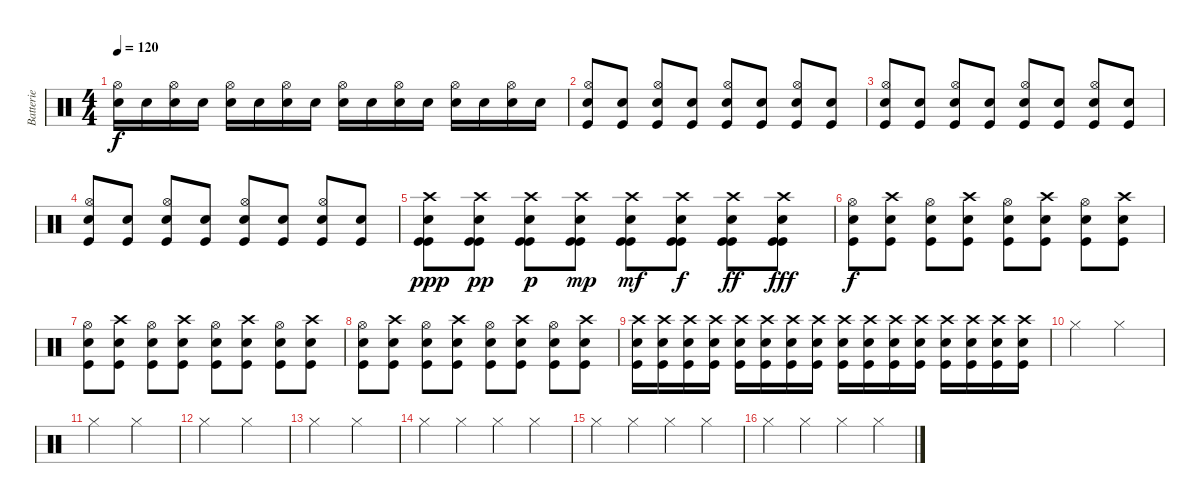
\track ("Batterie" "Batterie") {instrument percussion}
\staff {score}
\articulation defaults
\ts (4 4)
\tempo 120
\clef neutral
\ks c
("Electric Snare (hit)" "Hi-Hat (open)").16{dy f} "Electric Snare (hit)".16 ("Electric Snare (hit)" "Hi-Hat (open)").16 "Electric Snare (hit)".16 ("Electric Snare (hit)" "Hi-Hat (open)").16 "Electric Snare (hit)".16 ("Electric Snare (hit)" "Hi-Hat (open)").16 "Electric Snare (hit)".16 ("Electric Snare (hit)" "Hi-Hat (open)").16 "Electric Snare (hit)".16 ("Electric Snare (hit)" "Hi-Hat (open)").16 "Electric Snare (hit)".16 ("Electric Snare (hit)" "Hi-Hat (open)").16 "Electric Snare (hit)".16 ("Electric Snare (hit)" "Hi-Hat (open)").16 "Electric Snare (hit)".16 |
("Electric Snare (hit)" "Hi-Hat (open)" "Kick (hit)").8 ("Electric Snare (hit)" "Kick (hit)").8 ("Electric Snare (hit)" "Hi-Hat (open)" "Kick (hit)").8 ("Electric Snare (hit)" "Kick (hit)").8 ("Electric Snare (hit)" "Hi-Hat (open)" "Kick (hit)").8 ("Electric Snare (hit)" "Kick (hit)").8 ("Electric Snare (hit)" "Hi-Hat (open)" "Kick (hit)").8 ("Electric Snare (hit)" "Kick (hit)").8 |
("Electric Snare (hit)" "Hi-Hat (open)" "Kick (hit)").8 ("Electric Snare (hit)" "Kick (hit)").8 ("Electric Snare (hit)" "Hi-Hat (open)" "Kick (hit)").8 ("Electric Snare (hit)" "Kick (hit)").8 ("Electric Snare (hit)" "Hi-Hat (open)" "Kick (hit)").8 ("Electric Snare (hit)" "Kick (hit)").8 ("Electric Snare (hit)" "Hi-Hat (open)" "Kick (hit)").8 ("Electric Snare (hit)" "Kick (hit)").8 |
("Electric Snare (hit)" "Hi-Hat (open)" "Kick (hit)").8 ("Electric Snare (hit)" "Kick (hit)").8 ("Electric Snare (hit)" "Hi-Hat (open)" "Kick (hit)").8 ("Electric Snare (hit)" "Kick (hit)").8 ("Electric Snare (hit)" "Hi-Hat (open)" "Kick (hit)").8 ("Electric Snare (hit)" "Kick (hit)").8 ("Electric Snare (hit)" "Hi-Hat (open)" "Kick (hit)").8 ("Electric Snare (hit)" "Kick (hit)").8 |
("Electric Snare (hit)" "Crash high (hit)" "Kick (hit)" "Kick (hit)").8{dy ppp} ("Electric Snare (hit)" "Crash high (hit)" "Kick (hit)" "Kick (hit)").8{dy pp} ("Electric Snare (hit)" "Crash high (hit)" "Kick (hit)" "Kick (hit)").8{dy p} ("Electric Snare (hit)" "Crash high (hit)" "Kick (hit)" "Kick (hit)").8{dy mp} ("Electric Snare (hit)" "Crash high (hit)" "Kick (hit)" "Kick (hit)").8{dy mf} ("Electric Snare (hit)" "Crash high (hit)" "Kick (hit)" "Kick (hit)").8{dy f} ("Electric Snare (hit)" "Crash high (hit)" "Kick (hit)" "Kick (hit)").8{dy ff} ("Electric Snare (hit)" "Crash high (hit)" "Kick (hit)" "Kick (hit)").8{dy fff} |
("Electric Snare (hit)" "Hi-Hat (open)" "Kick (hit)").8{dy f} ("Electric Snare (hit)" "Crash high (hit)" "Kick (hit)").8 ("Electric Snare (hit)" "Hi-Hat (open)" "Kick (hit)").8 ("Electric Snare (hit)" "Crash high (hit)" "Kick (hit)").8 ("Electric Snare (hit)" "Hi-Hat (open)" "Kick (hit)").8 ("Electric Snare (hit)" "Crash high (hit)" "Kick (hit)").8 ("Electric Snare (hit)" "Hi-Hat (open)" "Kick (hit)").8 ("Electric Snare (hit)" "Crash high (hit)" "Kick (hit)").8 |
("Electric Snare (hit)" "Hi-Hat (open)" "Kick (hit)").8 ("Electric Snare (hit)" "Crash high (hit)" "Kick (hit)").8 ("Electric Snare (hit)" "Hi-Hat (open)" "Kick (hit)").8 ("Electric Snare (hit)" "Crash high (hit)" "Kick (hit)").8 ("Electric Snare (hit)" "Hi-Hat (open)" "Kick (hit)").8 ("Electric Snare (hit)" "Crash high (hit)" "Kick (hit)").8 ("Electric Snare (hit)" "Hi-Hat (open)" "Kick (hit)").8 ("Electric Snare (hit)" "Crash high (hit)" "Kick (hit)").8 |
("Electric Snare (hit)" "Hi-Hat (open)" "Kick (hit)").8 ("Electric Snare (hit)" "Crash high (hit)" "Kick (hit)").8 ("Electric Snare (hit)" "Hi-Hat (open)" "Kick (hit)").8 ("Electric Snare (hit)" "Crash high (hit)" "Kick (hit)").8 ("Electric Snare (hit)" "Hi-Hat (open)" "Kick (hit)").8 ("Electric Snare (hit)" "Crash high (hit)" "Kick (hit)").8 ("Electric Snare (hit)" "Hi-Hat (open)" "Kick (hit)").8 ("Electric Snare (hit)" "Crash high (hit)" "Kick (hit)").8 |
("Electric Snare (hit)" "Crash high (hit)" "Kick (hit)").16 ("Electric Snare (hit)" "Crash high (hit)" "Kick (hit)").16 ("Electric Snare (hit)" "Crash high (hit)" "Kick (hit)").16 ("Electric Snare (hit)" "Crash high (hit)" "Kick (hit)").16 ("Electric Snare (hit)" "Crash high (hit)" "Kick (hit)").16 ("Electric Snare (hit)" "Crash high (hit)" "Kick (hit)").16 ("Electric Snare (hit)" "Crash high (hit)" "Kick (hit)").16 ("Electric Snare (hit)" "Crash high (hit)" "Kick (hit)").16 ("Electric Snare (hit)" "Crash high (hit)" "Kick (hit)").16 ("Electric Snare (hit)" "Crash high (hit)" "Kick (hit)").16 ("Electric Snare (hit)" "Crash high (hit)" "Kick (hit)").16 ("Electric Snare (hit)" "Crash high (hit)" "Kick (hit)").16 ("Electric Snare (hit)" "Crash high (hit)" "Kick (hit)").16 ("Electric Snare (hit)" "Crash high (hit)" "Kick (hit)").16 ("Electric Snare (hit)" "Crash high (hit)" "Kick (hit)").16 ("Electric Snare (hit)" "Crash high (hit)" "Kick (hit)").16 |
"Hi-Hat (closed)".2 "Hi-Hat (closed)".2 |
"Hi-Hat (closed)".2 "Hi-Hat (closed)".2 |
"Hi-Hat (closed)".2 "Hi-Hat (closed)".2 |
"Hi-Hat (closed)".2 "Hi-Hat (closed)".2 |
"Hi-Hat (closed)".4 "Hi-Hat (closed)".4 "Hi-Hat (closed)".4 "Hi-Hat (closed)".4 |
"Hi-Hat (closed)".4 "Hi-Hat (closed)".4 "Hi-Hat (closed)".4 "Hi-Hat (closed)".4 |
"Hi-Hat (closed)".4 "Hi-Hat (closed)".4 "Hi-Hat (closed)".4 "Hi-Hat (closed)".4
